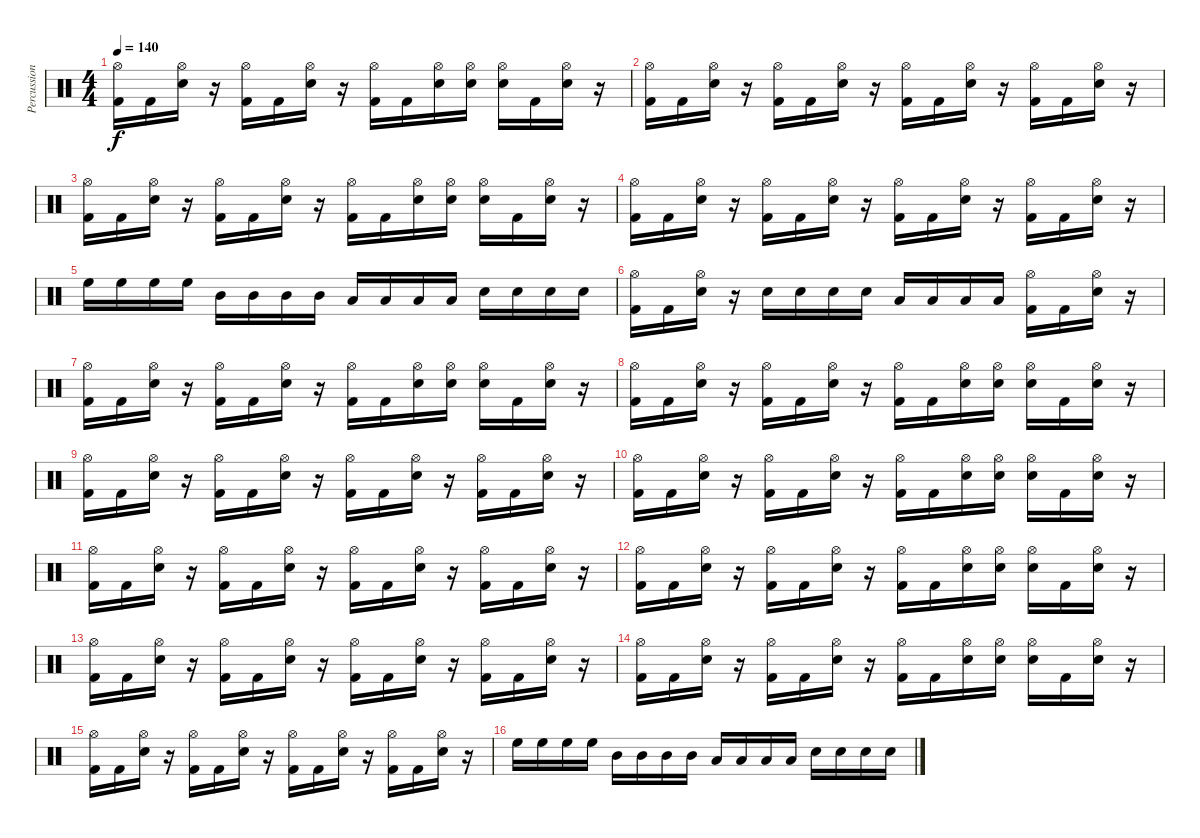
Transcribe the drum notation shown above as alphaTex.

\track ("Percussions" "Percussion") {instrument percussion}
\staff {score}
\articulation defaults
\ts (4 4)
\tempo 140
\clef neutral
\ks c
("Kick (hit) 2" "Hi-Hat (open)").16{dy f} "Kick (hit) 2".16 ("Electric Snare (hit)" "Hi-Hat (open)").16 r.16 ("Kick (hit) 2" "Hi-Hat (open)").16 "Kick (hit) 2".16 ("Electric Snare (hit)" "Hi-Hat (open)").16 r.16 ("Kick (hit) 2" "Hi-Hat (open)").16 "Kick (hit) 2".16 ("Electric Snare (hit)" "Hi-Hat (open)").16 ("Electric Snare (hit)" "Hi-Hat (open)").16 ("Electric Snare (hit)" "Hi-Hat (open)").16 "Kick (hit) 2".16 ("Electric Snare (hit)" "Hi-Hat (open)").16 r.16 |
("Kick (hit) 2" "Hi-Hat (open)").16 "Kick (hit) 2".16 ("Electric Snare (hit)" "Hi-Hat (open)").16 r.16 ("Kick (hit) 2" "Hi-Hat (open)").16 "Kick (hit) 2".16 ("Electric Snare (hit)" "Hi-Hat (open)").16 r.16 ("Kick (hit) 2" "Hi-Hat (open)").16 "Kick (hit) 2".16 ("Electric Snare (hit)" "Hi-Hat (open)").16 r.16 ("Kick (hit) 2" "Hi-Hat (open)").16 "Kick (hit) 2".16 ("Electric Snare (hit)" "Hi-Hat (open)").16 r.16 |
("Kick (hit) 2" "Hi-Hat (open)").16 "Kick (hit) 2".16 ("Electric Snare (hit)" "Hi-Hat (open)").16 r.16 ("Kick (hit) 2" "Hi-Hat (open)").16 "Kick (hit) 2".16 ("Electric Snare (hit)" "Hi-Hat (open)").16 r.16 ("Kick (hit) 2" "Hi-Hat (open)").16 "Kick (hit) 2".16 ("Electric Snare (hit)" "Hi-Hat (open)").16 ("Electric Snare (hit)" "Hi-Hat (open)").16 ("Electric Snare (hit)" "Hi-Hat (open)").16 "Kick (hit) 2".16 ("Electric Snare (hit)" "Hi-Hat (open)").16 r.16 |
("Kick (hit) 2" "Hi-Hat (open)").16 "Kick (hit) 2".16 ("Electric Snare (hit)" "Hi-Hat (open)").16 r.16 ("Kick (hit) 2" "Hi-Hat (open)").16 "Kick (hit) 2".16 ("Electric Snare (hit)" "Hi-Hat (open)").16 r.16 ("Kick (hit) 2" "Hi-Hat (open)").16 "Kick (hit) 2".16 ("Electric Snare (hit)" "Hi-Hat (open)").16 r.16 ("Kick (hit) 2" "Hi-Hat (open)").16 "Kick (hit) 2".16 ("Electric Snare (hit)" "Hi-Hat (open)").16 r.16 |
"High Floor Tom (hit)".16 "High Floor Tom (hit)".16 "High Floor Tom (hit)".16 "High Floor Tom (hit)".16 "Mid Tom (hit)".16 "Mid Tom (hit)".16 "Mid Tom (hit)".16 "Mid Tom (hit)".16 "Low Tom (hit)".16 "Low Tom (hit)".16 "Low Tom (hit)".16 "Low Tom (hit)".16 "Electric Snare (hit)".16 "Electric Snare (hit)".16 "Electric Snare (hit)".16 "Electric Snare (hit)".16 |
("Kick (hit) 2" "Hi-Hat (open)").16 "Kick (hit) 2".16 ("Electric Snare (hit)" "Hi-Hat (open)").16 r.16 "Electric Snare (hit)".16 "Electric Snare (hit)".16 "Electric Snare (hit)".16 "Electric Snare (hit)".16 "Low Tom (hit)".16 "Low Tom (hit)".16 "Low Tom (hit)".16 "Low Tom (hit)".16 ("Kick (hit) 2" "Hi-Hat (open)").16 "Kick (hit) 2".16 ("Electric Snare (hit)" "Hi-Hat (open)").16 r.16 |
("Kick (hit) 2" "Hi-Hat (open)").16 "Kick (hit) 2".16 ("Electric Snare (hit)" "Hi-Hat (open)").16 r.16 ("Kick (hit) 2" "Hi-Hat (open)").16 "Kick (hit) 2".16 ("Electric Snare (hit)" "Hi-Hat (open)").16 r.16 ("Kick (hit) 2" "Hi-Hat (open)").16 "Kick (hit) 2".16 ("Electric Snare (hit)" "Hi-Hat (open)").16 ("Electric Snare (hit)" "Hi-Hat (open)").16 ("Electric Snare (hit)" "Hi-Hat (open)").16 "Kick (hit) 2".16 ("Electric Snare (hit)" "Hi-Hat (open)").16 r.16 |
("Kick (hit) 2" "Hi-Hat (open)").16 "Kick (hit) 2".16 ("Electric Snare (hit)" "Hi-Hat (open)").16 r.16 ("Kick (hit) 2" "Hi-Hat (open)").16 "Kick (hit) 2".16 ("Electric Snare (hit)" "Hi-Hat (open)").16 r.16 ("Kick (hit) 2" "Hi-Hat (open)").16 "Kick (hit) 2".16 ("Electric Snare (hit)" "Hi-Hat (open)").16 ("Electric Snare (hit)" "Hi-Hat (open)").16 ("Electric Snare (hit)" "Hi-Hat (open)").16 "Kick (hit) 2".16 ("Electric Snare (hit)" "Hi-Hat (open)").16 r.16 |
("Kick (hit) 2" "Hi-Hat (open)").16 "Kick (hit) 2".16 ("Electric Snare (hit)" "Hi-Hat (open)").16 r.16 ("Kick (hit) 2" "Hi-Hat (open)").16 "Kick (hit) 2".16 ("Electric Snare (hit)" "Hi-Hat (open)").16 r.16 ("Kick (hit) 2" "Hi-Hat (open)").16 "Kick (hit) 2".16 ("Electric Snare (hit)" "Hi-Hat (open)").16 r.16 ("Kick (hit) 2" "Hi-Hat (open)").16 "Kick (hit) 2".16 ("Electric Snare (hit)" "Hi-Hat (open)").16 r.16 |
("Kick (hit) 2" "Hi-Hat (open)").16 "Kick (hit) 2".16 ("Electric Snare (hit)" "Hi-Hat (open)").16 r.16 ("Kick (hit) 2" "Hi-Hat (open)").16 "Kick (hit) 2".16 ("Electric Snare (hit)" "Hi-Hat (open)").16 r.16 ("Kick (hit) 2" "Hi-Hat (open)").16 "Kick (hit) 2".16 ("Electric Snare (hit)" "Hi-Hat (open)").16 ("Electric Snare (hit)" "Hi-Hat (open)").16 ("Electric Snare (hit)" "Hi-Hat (open)").16 "Kick (hit) 2".16 ("Electric Snare (hit)" "Hi-Hat (open)").16 r.16 |
("Kick (hit) 2" "Hi-Hat (open)").16 "Kick (hit) 2".16 ("Electric Snare (hit)" "Hi-Hat (open)").16 r.16 ("Kick (hit) 2" "Hi-Hat (open)").16 "Kick (hit) 2".16 ("Electric Snare (hit)" "Hi-Hat (open)").16 r.16 ("Kick (hit) 2" "Hi-Hat (open)").16 "Kick (hit) 2".16 ("Electric Snare (hit)" "Hi-Hat (open)").16 r.16 ("Kick (hit) 2" "Hi-Hat (open)").16 "Kick (hit) 2".16 ("Electric Snare (hit)" "Hi-Hat (open)").16 r.16 |
("Kick (hit) 2" "Hi-Hat (open)").16 "Kick (hit) 2".16 ("Electric Snare (hit)" "Hi-Hat (open)").16 r.16 ("Kick (hit) 2" "Hi-Hat (open)").16 "Kick (hit) 2".16 ("Electric Snare (hit)" "Hi-Hat (open)").16 r.16 ("Kick (hit) 2" "Hi-Hat (open)").16 "Kick (hit) 2".16 ("Electric Snare (hit)" "Hi-Hat (open)").16 ("Electric Snare (hit)" "Hi-Hat (open)").16 ("Electric Snare (hit)" "Hi-Hat (open)").16 "Kick (hit) 2".16 ("Electric Snare (hit)" "Hi-Hat (open)").16 r.16 |
("Kick (hit) 2" "Hi-Hat (open)").16 "Kick (hit) 2".16 ("Electric Snare (hit)" "Hi-Hat (open)").16 r.16 ("Kick (hit) 2" "Hi-Hat (open)").16 "Kick (hit) 2".16 ("Electric Snare (hit)" "Hi-Hat (open)").16 r.16 ("Kick (hit) 2" "Hi-Hat (open)").16 "Kick (hit) 2".16 ("Electric Snare (hit)" "Hi-Hat (open)").16 r.16 ("Kick (hit) 2" "Hi-Hat (open)").16 "Kick (hit) 2".16 ("Electric Snare (hit)" "Hi-Hat (open)").16 r.16 |
("Kick (hit) 2" "Hi-Hat (open)").16 "Kick (hit) 2".16 ("Electric Snare (hit)" "Hi-Hat (open)").16 r.16 ("Kick (hit) 2" "Hi-Hat (open)").16 "Kick (hit) 2".16 ("Electric Snare (hit)" "Hi-Hat (open)").16 r.16 ("Kick (hit) 2" "Hi-Hat (open)").16 "Kick (hit) 2".16 ("Electric Snare (hit)" "Hi-Hat (open)").16 ("Electric Snare (hit)" "Hi-Hat (open)").16 ("Electric Snare (hit)" "Hi-Hat (open)").16 "Kick (hit) 2".16 ("Electric Snare (hit)" "Hi-Hat (open)").16 r.16 |
("Kick (hit) 2" "Hi-Hat (open)").16 "Kick (hit) 2".16 ("Electric Snare (hit)" "Hi-Hat (open)").16 r.16 ("Kick (hit) 2" "Hi-Hat (open)").16 "Kick (hit) 2".16 ("Electric Snare (hit)" "Hi-Hat (open)").16 r.16 ("Kick (hit) 2" "Hi-Hat (open)").16 "Kick (hit) 2".16 ("Electric Snare (hit)" "Hi-Hat (open)").16 r.16 ("Kick (hit) 2" "Hi-Hat (open)").16 "Kick (hit) 2".16 ("Electric Snare (hit)" "Hi-Hat (open)").16 r.16 |
"High Floor Tom (hit)".16 "High Floor Tom (hit)".16 "High Floor Tom (hit)".16 "High Floor Tom (hit)".16 "Mid Tom (hit)".16 "Mid Tom (hit)".16 "Mid Tom (hit)".16 "Mid Tom (hit)".16 "Low Tom (hit)".16 "Low Tom (hit)".16 "Low Tom (hit)".16 "Low Tom (hit)".16 "Electric Snare (hit)".16 "Electric Snare (hit)".16 "Electric Snare (hit)".16 "Electric Snare (hit)".16
